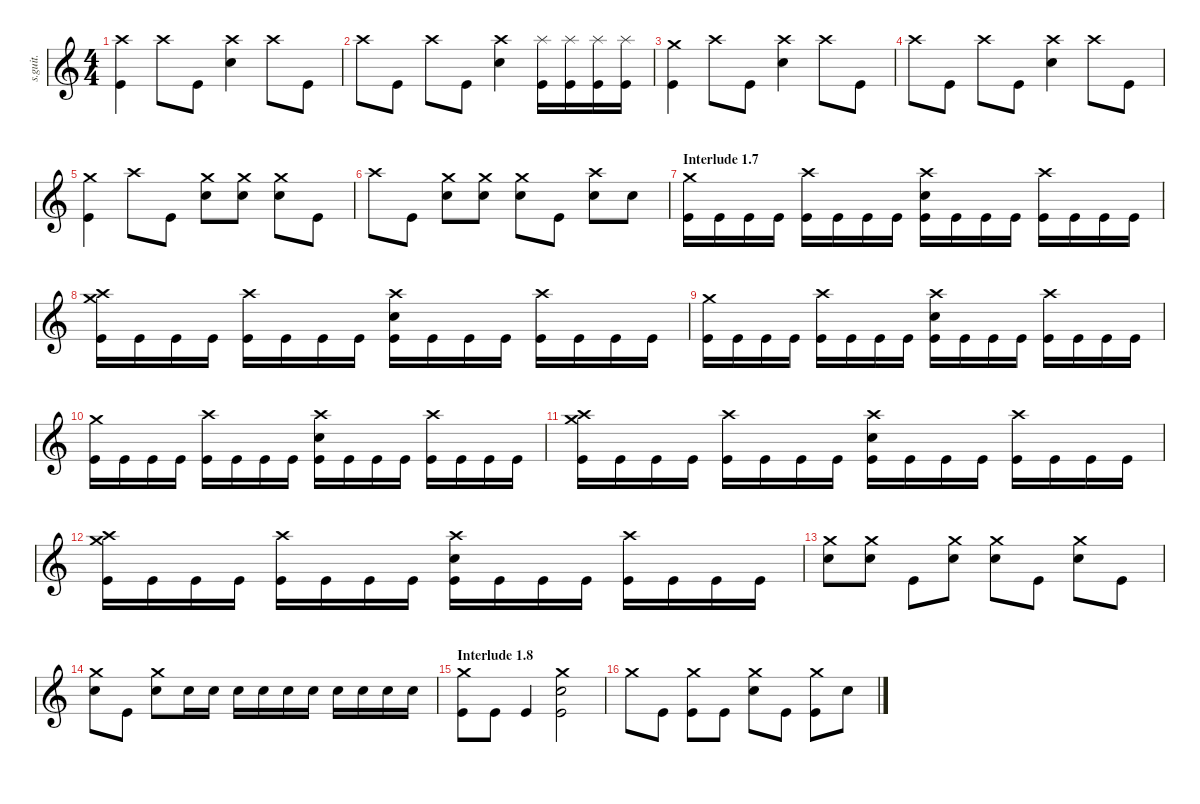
\defaultSystemsLayout 4
\hideDynamics
\bracketExtendMode nobrackets
\track ("Joey Jordison" "s.guit.") {instrument percussion}
\staff {score}
\articulation defaults
\ts (4 4)
\tempo (200 hide)
\clef g2
\ks c
("Crash high (hit)" "Kick (hit)").4{lyrics (0 "") lyrics (1 "") lyrics (2 "") lyrics (3 "") lyrics (4 "") dy ff} "Crash high (hit)".8{lyrics (0 "") lyrics (1 "") lyrics (2 "") lyrics (3 "") lyrics (4 "")} "Kick (hit)".8{lyrics (0 "") lyrics (1 "") lyrics (2 "") lyrics (3 "") lyrics (4 "")} ("Crash high (hit)" "Snare (hit) 2").4{lyrics (0 "") lyrics (1 "") lyrics (2 "") lyrics (3 "") lyrics (4 "")} "Crash high (hit)".8{lyrics (0 "") lyrics (1 "") lyrics (2 "") lyrics (3 "") lyrics (4 "")} "Kick (hit)".8{lyrics (0 "") lyrics (1 "") lyrics (2 "") lyrics (3 "") lyrics (4 "")} |
"Crash high (hit)".8{lyrics (0 "") lyrics (1 "") lyrics (2 "") lyrics (3 "") lyrics (4 "")} "Kick (hit)".8{lyrics (0 "") lyrics (1 "") lyrics (2 "") lyrics (3 "") lyrics (4 "")} "Crash high (hit)".8{lyrics (0 "") lyrics (1 "") lyrics (2 "") lyrics (3 "") lyrics (4 "")} "Kick (hit)".8{lyrics (0 "") lyrics (1 "") lyrics (2 "") lyrics (3 "") lyrics (4 "")} ("Crash high (hit)" "Snare (hit) 2").4{lyrics (0 "") lyrics (1 "") lyrics (2 "") lyrics (3 "") lyrics (4 "")} ("Kick (hit)" "Splash (hit)").16{lyrics (0 "") lyrics (1 "") lyrics (2 "") lyrics (3 "") lyrics (4 "")} ("Kick (hit)" "Splash (hit)").16{lyrics (0 "") lyrics (1 "") lyrics (2 "") lyrics (3 "") lyrics (4 "")} ("Kick (hit)" "Splash (hit)").16{lyrics (0 "") lyrics (1 "") lyrics (2 "") lyrics (3 "") lyrics (4 "")} ("Kick (hit)" "Splash (hit)").16{lyrics (0 "") lyrics (1 "") lyrics (2 "") lyrics (3 "") lyrics (4 "")} |
("Crash medium (hit)" "Kick (hit)").4{lyrics (0 "") lyrics (1 "") lyrics (2 "") lyrics (3 "") lyrics (4 "")} "Crash high (hit)".8{lyrics (0 "") lyrics (1 "") lyrics (2 "") lyrics (3 "") lyrics (4 "")} "Kick (hit)".8{lyrics (0 "") lyrics (1 "") lyrics (2 "") lyrics (3 "") lyrics (4 "")} ("Crash high (hit)" "Snare (hit) 2").4{lyrics (0 "") lyrics (1 "") lyrics (2 "") lyrics (3 "") lyrics (4 "")} "Crash high (hit)".8{lyrics (0 "") lyrics (1 "") lyrics (2 "") lyrics (3 "") lyrics (4 "")} "Kick (hit)".8{lyrics (0 "") lyrics (1 "") lyrics (2 "") lyrics (3 "") lyrics (4 "")} |
"Crash high (hit)".8{lyrics (0 "") lyrics (1 "") lyrics (2 "") lyrics (3 "") lyrics (4 "")} "Kick (hit)".8{lyrics (0 "") lyrics (1 "") lyrics (2 "") lyrics (3 "") lyrics (4 "")} "Crash high (hit)".8{lyrics (0 "") lyrics (1 "") lyrics (2 "") lyrics (3 "") lyrics (4 "")} "Kick (hit)".8{lyrics (0 "") lyrics (1 "") lyrics (2 "") lyrics (3 "") lyrics (4 "")} ("Crash high (hit)" "Snare (hit) 2").4{lyrics (0 "") lyrics (1 "") lyrics (2 "") lyrics (3 "") lyrics (4 "")} "Crash high (hit)".8{lyrics (0 "") lyrics (1 "") lyrics (2 "") lyrics (3 "") lyrics (4 "")} "Kick (hit)".8{lyrics (0 "") lyrics (1 "") lyrics (2 "") lyrics (3 "") lyrics (4 "")} |
("Crash medium (hit)" "Kick (hit)").4{lyrics (0 "") lyrics (1 "") lyrics (2 "") lyrics (3 "") lyrics (4 "")} "Crash high (hit)".8{lyrics (0 "") lyrics (1 "") lyrics (2 "") lyrics (3 "") lyrics (4 "")} "Kick (hit)".8{lyrics (0 "") lyrics (1 "") lyrics (2 "") lyrics (3 "") lyrics (4 "")} ("Crash medium (hit)" "Snare (hit) 2").8{lyrics (0 "") lyrics (1 "") lyrics (2 "") lyrics (3 "") lyrics (4 "")} ("Crash medium (hit)" "Snare (hit) 2").8{lyrics (0 "") lyrics (1 "") lyrics (2 "") lyrics (3 "") lyrics (4 "")} ("Crash medium (hit)" "Snare (hit) 2").8{lyrics (0 "") lyrics (1 "") lyrics (2 "") lyrics (3 "") lyrics (4 "")} "Kick (hit)".8{lyrics (0 "") lyrics (1 "") lyrics (2 "") lyrics (3 "") lyrics (4 "")} |
"Crash high (hit)".8{lyrics (0 "") lyrics (1 "") lyrics (2 "") lyrics (3 "") lyrics (4 "")} "Kick (hit)".8{lyrics (0 "") lyrics (1 "") lyrics (2 "") lyrics (3 "") lyrics (4 "")} ("Crash medium (hit)" "Snare (hit) 2").8{lyrics (0 "") lyrics (1 "") lyrics (2 "") lyrics (3 "") lyrics (4 "")} ("Crash medium (hit)" "Snare (hit) 2").8{lyrics (0 "") lyrics (1 "") lyrics (2 "") lyrics (3 "") lyrics (4 "")} ("Crash medium (hit)" "Snare (hit) 2").8{lyrics (0 "") lyrics (1 "") lyrics (2 "") lyrics (3 "") lyrics (4 "")} "Kick (hit)".8{lyrics (0 "") lyrics (1 "") lyrics (2 "") lyrics (3 "") lyrics (4 "")} ("Snare (hit) 2" "Crash high (hit)").8{lyrics (0 "") lyrics (1 "") lyrics (2 "") lyrics (3 "") lyrics (4 "")} "Snare (hit) 2".8{lyrics (0 "") lyrics (1 "") lyrics (2 "") lyrics (3 "") lyrics (4 "")} |
\section ("" "Interlude 1.7")
("Crash medium (hit)" "Kick (hit)").16{lyrics (0 "") lyrics (1 "") lyrics (2 "") lyrics (3 "") lyrics (4 "")} "Kick (hit)".16{lyrics (0 "") lyrics (1 "") lyrics (2 "") lyrics (3 "") lyrics (4 "")} "Kick (hit)".16{lyrics (0 "") lyrics (1 "") lyrics (2 "") lyrics (3 "") lyrics (4 "")} "Kick (hit)".16{lyrics (0 "") lyrics (1 "") lyrics (2 "") lyrics (3 "") lyrics (4 "")} ("Kick (hit)" "Crash high (hit)").16{lyrics (0 "") lyrics (1 "") lyrics (2 "") lyrics (3 "") lyrics (4 "")} "Kick (hit)".16{lyrics (0 "") lyrics (1 "") lyrics (2 "") lyrics (3 "") lyrics (4 "")} "Kick (hit)".16{lyrics (0 "") lyrics (1 "") lyrics (2 "") lyrics (3 "") lyrics (4 "")} "Kick (hit)".16{lyrics (0 "") lyrics (1 "") lyrics (2 "") lyrics (3 "") lyrics (4 "")} ("Crash high (hit)" "Snare (hit) 2" "Kick (hit)").16{lyrics (0 "") lyrics (1 "") lyrics (2 "") lyrics (3 "") lyrics (4 "")} "Kick (hit)".16{lyrics (0 "") lyrics (1 "") lyrics (2 "") lyrics (3 "") lyrics (4 "")} "Kick (hit)".16{lyrics (0 "") lyrics (1 "") lyrics (2 "") lyrics (3 "") lyrics (4 "")} "Kick (hit)".16{lyrics (0 "") lyrics (1 "") lyrics (2 "") lyrics (3 "") lyrics (4 "")} ("Kick (hit)" "Crash high (hit)").16{lyrics (0 "") lyrics (1 "") lyrics (2 "") lyrics (3 "") lyrics (4 "")} "Kick (hit)".16{lyrics (0 "") lyrics (1 "") lyrics (2 "") lyrics (3 "") lyrics (4 "")} "Kick (hit)".16{lyrics (0 "") lyrics (1 "") lyrics (2 "") lyrics (3 "") lyrics (4 "")} "Kick (hit)".16{lyrics (0 "") lyrics (1 "") lyrics (2 "") lyrics (3 "") lyrics (4 "")} |
("Crash medium (hit)" "Kick (hit)" "Crash high (hit)").16{lyrics (0 "") lyrics (1 "") lyrics (2 "") lyrics (3 "") lyrics (4 "")} "Kick (hit)".16{lyrics (0 "") lyrics (1 "") lyrics (2 "") lyrics (3 "") lyrics (4 "")} "Kick (hit)".16{lyrics (0 "") lyrics (1 "") lyrics (2 "") lyrics (3 "") lyrics (4 "")} "Kick (hit)".16{lyrics (0 "") lyrics (1 "") lyrics (2 "") lyrics (3 "") lyrics (4 "")} ("Kick (hit)" "Crash high (hit)").16{lyrics (0 "") lyrics (1 "") lyrics (2 "") lyrics (3 "") lyrics (4 "")} "Kick (hit)".16{lyrics (0 "") lyrics (1 "") lyrics (2 "") lyrics (3 "") lyrics (4 "")} "Kick (hit)".16{lyrics (0 "") lyrics (1 "") lyrics (2 "") lyrics (3 "") lyrics (4 "")} "Kick (hit)".16{lyrics (0 "") lyrics (1 "") lyrics (2 "") lyrics (3 "") lyrics (4 "")} ("Crash high (hit)" "Snare (hit) 2" "Kick (hit)").16{lyrics (0 "") lyrics (1 "") lyrics (2 "") lyrics (3 "") lyrics (4 "")} "Kick (hit)".16{lyrics (0 "") lyrics (1 "") lyrics (2 "") lyrics (3 "") lyrics (4 "")} "Kick (hit)".16{lyrics (0 "") lyrics (1 "") lyrics (2 "") lyrics (3 "") lyrics (4 "")} "Kick (hit)".16{lyrics (0 "") lyrics (1 "") lyrics (2 "") lyrics (3 "") lyrics (4 "")} ("Kick (hit)" "Crash high (hit)").16{lyrics (0 "") lyrics (1 "") lyrics (2 "") lyrics (3 "") lyrics (4 "")} "Kick (hit)".16{lyrics (0 "") lyrics (1 "") lyrics (2 "") lyrics (3 "") lyrics (4 "")} "Kick (hit)".16{lyrics (0 "") lyrics (1 "") lyrics (2 "") lyrics (3 "") lyrics (4 "")} "Kick (hit)".16{lyrics (0 "") lyrics (1 "") lyrics (2 "") lyrics (3 "") lyrics (4 "")} |
("Crash medium (hit)" "Kick (hit)").16{lyrics (0 "") lyrics (1 "") lyrics (2 "") lyrics (3 "") lyrics (4 "")} "Kick (hit)".16{lyrics (0 "") lyrics (1 "") lyrics (2 "") lyrics (3 "") lyrics (4 "")} "Kick (hit)".16{lyrics (0 "") lyrics (1 "") lyrics (2 "") lyrics (3 "") lyrics (4 "")} "Kick (hit)".16{lyrics (0 "") lyrics (1 "") lyrics (2 "") lyrics (3 "") lyrics (4 "")} ("Kick (hit)" "Crash high (hit)").16{lyrics (0 "") lyrics (1 "") lyrics (2 "") lyrics (3 "") lyrics (4 "")} "Kick (hit)".16{lyrics (0 "") lyrics (1 "") lyrics (2 "") lyrics (3 "") lyrics (4 "")} "Kick (hit)".16{lyrics (0 "") lyrics (1 "") lyrics (2 "") lyrics (3 "") lyrics (4 "")} "Kick (hit)".16{lyrics (0 "") lyrics (1 "") lyrics (2 "") lyrics (3 "") lyrics (4 "")} ("Crash high (hit)" "Snare (hit) 2" "Kick (hit)").16{lyrics (0 "") lyrics (1 "") lyrics (2 "") lyrics (3 "") lyrics (4 "")} "Kick (hit)".16{lyrics (0 "") lyrics (1 "") lyrics (2 "") lyrics (3 "") lyrics (4 "")} "Kick (hit)".16{lyrics (0 "") lyrics (1 "") lyrics (2 "") lyrics (3 "") lyrics (4 "")} "Kick (hit)".16{lyrics (0 "") lyrics (1 "") lyrics (2 "") lyrics (3 "") lyrics (4 "")} ("Kick (hit)" "Crash high (hit)").16{lyrics (0 "") lyrics (1 "") lyrics (2 "") lyrics (3 "") lyrics (4 "")} "Kick (hit)".16{lyrics (0 "") lyrics (1 "") lyrics (2 "") lyrics (3 "") lyrics (4 "")} "Kick (hit)".16{lyrics (0 "") lyrics (1 "") lyrics (2 "") lyrics (3 "") lyrics (4 "")} "Kick (hit)".16{lyrics (0 "") lyrics (1 "") lyrics (2 "") lyrics (3 "") lyrics (4 "")} |
("Crash medium (hit)" "Kick (hit)").16{lyrics (0 "") lyrics (1 "") lyrics (2 "") lyrics (3 "") lyrics (4 "")} "Kick (hit)".16{lyrics (0 "") lyrics (1 "") lyrics (2 "") lyrics (3 "") lyrics (4 "")} "Kick (hit)".16{lyrics (0 "") lyrics (1 "") lyrics (2 "") lyrics (3 "") lyrics (4 "")} "Kick (hit)".16{lyrics (0 "") lyrics (1 "") lyrics (2 "") lyrics (3 "") lyrics (4 "")} ("Kick (hit)" "Crash high (hit)").16{lyrics (0 "") lyrics (1 "") lyrics (2 "") lyrics (3 "") lyrics (4 "")} "Kick (hit)".16{lyrics (0 "") lyrics (1 "") lyrics (2 "") lyrics (3 "") lyrics (4 "")} "Kick (hit)".16{lyrics (0 "") lyrics (1 "") lyrics (2 "") lyrics (3 "") lyrics (4 "")} "Kick (hit)".16{lyrics (0 "") lyrics (1 "") lyrics (2 "") lyrics (3 "") lyrics (4 "")} ("Crash high (hit)" "Snare (hit) 2" "Kick (hit)").16{lyrics (0 "") lyrics (1 "") lyrics (2 "") lyrics (3 "") lyrics (4 "")} "Kick (hit)".16{lyrics (0 "") lyrics (1 "") lyrics (2 "") lyrics (3 "") lyrics (4 "")} "Kick (hit)".16{lyrics (0 "") lyrics (1 "") lyrics (2 "") lyrics (3 "") lyrics (4 "")} "Kick (hit)".16{lyrics (0 "") lyrics (1 "") lyrics (2 "") lyrics (3 "") lyrics (4 "")} ("Kick (hit)" "Crash high (hit)").16{lyrics (0 "") lyrics (1 "") lyrics (2 "") lyrics (3 "") lyrics (4 "")} "Kick (hit)".16{lyrics (0 "") lyrics (1 "") lyrics (2 "") lyrics (3 "") lyrics (4 "")} "Kick (hit)".16{lyrics (0 "") lyrics (1 "") lyrics (2 "") lyrics (3 "") lyrics (4 "")} "Kick (hit)".16{lyrics (0 "") lyrics (1 "") lyrics (2 "") lyrics (3 "") lyrics (4 "")} |
("Crash medium (hit)" "Kick (hit)" "Crash high (hit)").16{lyrics (0 "") lyrics (1 "") lyrics (2 "") lyrics (3 "") lyrics (4 "")} "Kick (hit)".16{lyrics (0 "") lyrics (1 "") lyrics (2 "") lyrics (3 "") lyrics (4 "")} "Kick (hit)".16{lyrics (0 "") lyrics (1 "") lyrics (2 "") lyrics (3 "") lyrics (4 "")} "Kick (hit)".16{lyrics (0 "") lyrics (1 "") lyrics (2 "") lyrics (3 "") lyrics (4 "")} ("Kick (hit)" "Crash high (hit)").16{lyrics (0 "") lyrics (1 "") lyrics (2 "") lyrics (3 "") lyrics (4 "")} "Kick (hit)".16{lyrics (0 "") lyrics (1 "") lyrics (2 "") lyrics (3 "") lyrics (4 "")} "Kick (hit)".16{lyrics (0 "") lyrics (1 "") lyrics (2 "") lyrics (3 "") lyrics (4 "")} "Kick (hit)".16{lyrics (0 "") lyrics (1 "") lyrics (2 "") lyrics (3 "") lyrics (4 "")} ("Crash high (hit)" "Snare (hit) 2" "Kick (hit)").16{lyrics (0 "") lyrics (1 "") lyrics (2 "") lyrics (3 "") lyrics (4 "")} "Kick (hit)".16{lyrics (0 "") lyrics (1 "") lyrics (2 "") lyrics (3 "") lyrics (4 "")} "Kick (hit)".16{lyrics (0 "") lyrics (1 "") lyrics (2 "") lyrics (3 "") lyrics (4 "")} "Kick (hit)".16{lyrics (0 "") lyrics (1 "") lyrics (2 "") lyrics (3 "") lyrics (4 "")} ("Kick (hit)" "Crash high (hit)").16{lyrics (0 "") lyrics (1 "") lyrics (2 "") lyrics (3 "") lyrics (4 "")} "Kick (hit)".16{lyrics (0 "") lyrics (1 "") lyrics (2 "") lyrics (3 "") lyrics (4 "")} "Kick (hit)".16{lyrics (0 "") lyrics (1 "") lyrics (2 "") lyrics (3 "") lyrics (4 "")} "Kick (hit)".16{lyrics (0 "") lyrics (1 "") lyrics (2 "") lyrics (3 "") lyrics (4 "")} |
\tempo (210 hide)
("Crash medium (hit)" "Kick (hit)" "Crash high (hit)").16{lyrics (0 "") lyrics (1 "") lyrics (2 "") lyrics (3 "") lyrics (4 "")} "Kick (hit)".16{lyrics (0 "") lyrics (1 "") lyrics (2 "") lyrics (3 "") lyrics (4 "")} "Kick (hit)".16{lyrics (0 "") lyrics (1 "") lyrics (2 "") lyrics (3 "") lyrics (4 "")} "Kick (hit)".16{lyrics (0 "") lyrics (1 "") lyrics (2 "") lyrics (3 "") lyrics (4 "")} ("Kick (hit)" "Crash high (hit)").16{lyrics (0 "") lyrics (1 "") lyrics (2 "") lyrics (3 "") lyrics (4 "")} "Kick (hit)".16{lyrics (0 "") lyrics (1 "") lyrics (2 "") lyrics (3 "") lyrics (4 "")} "Kick (hit)".16{lyrics (0 "") lyrics (1 "") lyrics (2 "") lyrics (3 "") lyrics (4 "")} "Kick (hit)".16{lyrics (0 "") lyrics (1 "") lyrics (2 "") lyrics (3 "") lyrics (4 "")} ("Crash high (hit)" "Snare (hit) 2" "Kick (hit)").16{lyrics (0 "") lyrics (1 "") lyrics (2 "") lyrics (3 "") lyrics (4 "")} "Kick (hit)".16{lyrics (0 "") lyrics (1 "") lyrics (2 "") lyrics (3 "") lyrics (4 "")} "Kick (hit)".16{lyrics (0 "") lyrics (1 "") lyrics (2 "") lyrics (3 "") lyrics (4 "")} "Kick (hit)".16{lyrics (0 "") lyrics (1 "") lyrics (2 "") lyrics (3 "") lyrics (4 "")} ("Kick (hit)" "Crash high (hit)").16{lyrics (0 "") lyrics (1 "") lyrics (2 "") lyrics (3 "") lyrics (4 "")} "Kick (hit)".16{lyrics (0 "") lyrics (1 "") lyrics (2 "") lyrics (3 "") lyrics (4 "")} "Kick (hit)".16{lyrics (0 "") lyrics (1 "") lyrics (2 "") lyrics (3 "") lyrics (4 "")} "Kick (hit)".16{lyrics (0 "") lyrics (1 "") lyrics (2 "") lyrics (3 "") lyrics (4 "")} |
("Snare (hit) 2" "Crash medium (hit)").8{lyrics (0 "") lyrics (1 "") lyrics (2 "") lyrics (3 "") lyrics (4 "")} ("Snare (hit) 2" "Crash medium (hit)").8{lyrics (0 "") lyrics (1 "") lyrics (2 "") lyrics (3 "") lyrics (4 "")} "Kick (hit)".8{lyrics (0 "") lyrics (1 "") lyrics (2 "") lyrics (3 "") lyrics (4 "")} ("Snare (hit) 2" "Crash medium (hit)").8{lyrics (0 "") lyrics (1 "") lyrics (2 "") lyrics (3 "") lyrics (4 "")} ("Snare (hit) 2" "Crash medium (hit)").8{lyrics (0 "") lyrics (1 "") lyrics (2 "") lyrics (3 "") lyrics (4 "")} "Kick (hit)".8{lyrics (0 "") lyrics (1 "") lyrics (2 "") lyrics (3 "") lyrics (4 "")} ("Snare (hit) 2" "Crash medium (hit)").8{lyrics (0 "") lyrics (1 "") lyrics (2 "") lyrics (3 "") lyrics (4 "")} "Kick (hit)".8{lyrics (0 "") lyrics (1 "") lyrics (2 "") lyrics (3 "") lyrics (4 "")} |
("Snare (hit) 2" "Crash medium (hit)").8{lyrics (0 "") lyrics (1 "") lyrics (2 "") lyrics (3 "") lyrics (4 "")} "Kick (hit)".8{lyrics (0 "") lyrics (1 "") lyrics (2 "") lyrics (3 "") lyrics (4 "")} ("Snare (hit) 2" "Crash medium (hit)").8{lyrics (0 "") lyrics (1 "") lyrics (2 "") lyrics (3 "") lyrics (4 "")} "Snare (hit) 2".16{lyrics (0 "") lyrics (1 "") lyrics (2 "") lyrics (3 "") lyrics (4 "")} "Snare (hit) 2".16{lyrics (0 "") lyrics (1 "") lyrics (2 "") lyrics (3 "") lyrics (4 "")} "Snare (hit) 2".16{lyrics (0 "") lyrics (1 "") lyrics (2 "") lyrics (3 "") lyrics (4 "")} "Snare (hit) 2".16{lyrics (0 "") lyrics (1 "") lyrics (2 "") lyrics (3 "") lyrics (4 "")} "Snare (hit) 2".16{lyrics (0 "") lyrics (1 "") lyrics (2 "") lyrics (3 "") lyrics (4 "")} "Snare (hit) 2".16{lyrics (0 "") lyrics (1 "") lyrics (2 "") lyrics (3 "") lyrics (4 "")} "Snare (hit) 2".16{lyrics (0 "") lyrics (1 "") lyrics (2 "") lyrics (3 "") lyrics (4 "")} "Snare (hit) 2".16{lyrics (0 "") lyrics (1 "") lyrics (2 "") lyrics (3 "") lyrics (4 "")} "Snare (hit) 2".16{lyrics (0 "") lyrics (1 "") lyrics (2 "") lyrics (3 "") lyrics (4 "")} "Snare (hit) 2".16{lyrics (0 "") lyrics (1 "") lyrics (2 "") lyrics (3 "") lyrics (4 "")} |
\section ("" "Interlude 1.8")
\tempo (200 hide)
("Crash medium (hit)" "Kick (hit)").8{lyrics (0 "") lyrics (1 "") lyrics (2 "") lyrics (3 "") lyrics (4 "")} "Kick (hit)".8{lyrics (0 "") lyrics (1 "") lyrics (2 "") lyrics (3 "") lyrics (4 "")} "Kick (hit)".4{lyrics (0 "") lyrics (1 "") lyrics (2 "") lyrics (3 "") lyrics (4 "")} ("Crash medium (hit)" "Snare (hit) 2" "Kick (hit)").2{lyrics (0 "") lyrics (1 "") lyrics (2 "") lyrics (3 "") lyrics (4 "")} |
"Crash medium (hit)".8{lyrics (0 "") lyrics (1 "") lyrics (2 "") lyrics (3 "") lyrics (4 "")} "Kick (hit)".8{lyrics (0 "") lyrics (1 "") lyrics (2 "") lyrics (3 "") lyrics (4 "")} ("Kick (hit)" "Crash medium (hit)").8{lyrics (0 "") lyrics (1 "") lyrics (2 "") lyrics (3 "") lyrics (4 "")} "Kick (hit)".8{lyrics (0 "") lyrics (1 "") lyrics (2 "") lyrics (3 "") lyrics (4 "")} ("Crash medium (hit)" "Snare (hit) 2").8{lyrics (0 "") lyrics (1 "") lyrics (2 "") lyrics (3 "") lyrics (4 "")} "Kick (hit)".8{lyrics (0 "") lyrics (1 "") lyrics (2 "") lyrics (3 "") lyrics (4 "")} ("Kick (hit)" "Crash medium (hit)").8{lyrics (0 "") lyrics (1 "") lyrics (2 "") lyrics (3 "") lyrics (4 "")} "Snare (hit) 2".8{lyrics (0 "") lyrics (1 "") lyrics (2 "") lyrics (3 "") lyrics (4 "")}
